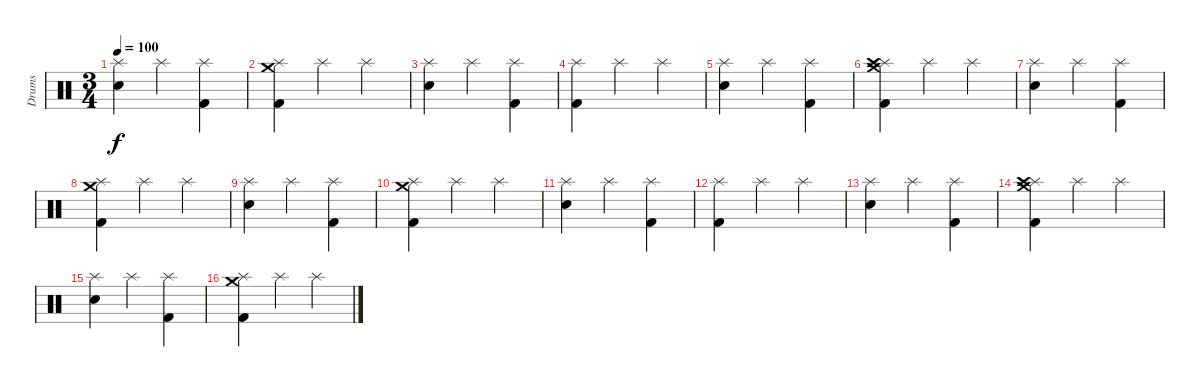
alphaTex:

\track ("Drums" "Drums") {instrument percussion}
\staff {score}
\articulation defaults
\ts (3 4)
\tempo 100
\clef neutral
\ks c
("Splash (hit)" "Electric Snare (hit)").4{dy f} "Splash (hit)".4 ("Splash (hit)" "Kick (hit) 2").4 |
("Splash (hit)" "Crash medium (hit)" "Kick (hit) 2").4 "Splash (hit)".4 "Splash (hit)".4 |
("Splash (hit)" "Electric Snare (hit)").4 "Splash (hit)".4 ("Splash (hit)" "Kick (hit) 2").4 |
("Splash (hit)" "Kick (hit) 2").4 "Splash (hit)".4 "Splash (hit)".4 |
("Splash (hit)" "Electric Snare (hit)").4 "Splash (hit)".4 ("Splash (hit)" "Kick (hit) 2").4 |
("Splash (hit)" "Crash high (hit)" "Crash medium (hit)" "Kick (hit) 2").4 "Splash (hit)".4 "Splash (hit)".4 |
("Splash (hit)" "Electric Snare (hit)").4 "Splash (hit)".4 ("Splash (hit)" "Kick (hit) 2").4 |
("Splash (hit)" "Crash medium (hit)" "Kick (hit) 2").4 "Splash (hit)".4 "Splash (hit)".4 |
("Splash (hit)" "Electric Snare (hit)").4 "Splash (hit)".4 ("Splash (hit)" "Kick (hit) 2").4 |
("Splash (hit)" "Crash medium (hit)" "Kick (hit) 2").4 "Splash (hit)".4 "Splash (hit)".4 |
("Splash (hit)" "Electric Snare (hit)").4 "Splash (hit)".4 ("Splash (hit)" "Kick (hit) 2").4 |
("Splash (hit)" "Kick (hit) 2").4 "Splash (hit)".4 "Splash (hit)".4 |
("Splash (hit)" "Electric Snare (hit)").4 "Splash (hit)".4 ("Splash (hit)" "Kick (hit) 2").4 |
("Splash (hit)" "Crash high (hit)" "Crash medium (hit)" "Kick (hit) 2").4 "Splash (hit)".4 "Splash (hit)".4 |
("Splash (hit)" "Electric Snare (hit)").4 "Splash (hit)".4 ("Splash (hit)" "Kick (hit) 2").4 |
("Splash (hit)" "Crash medium (hit)" "Kick (hit) 2").4 "Splash (hit)".4 "Splash (hit)".4
